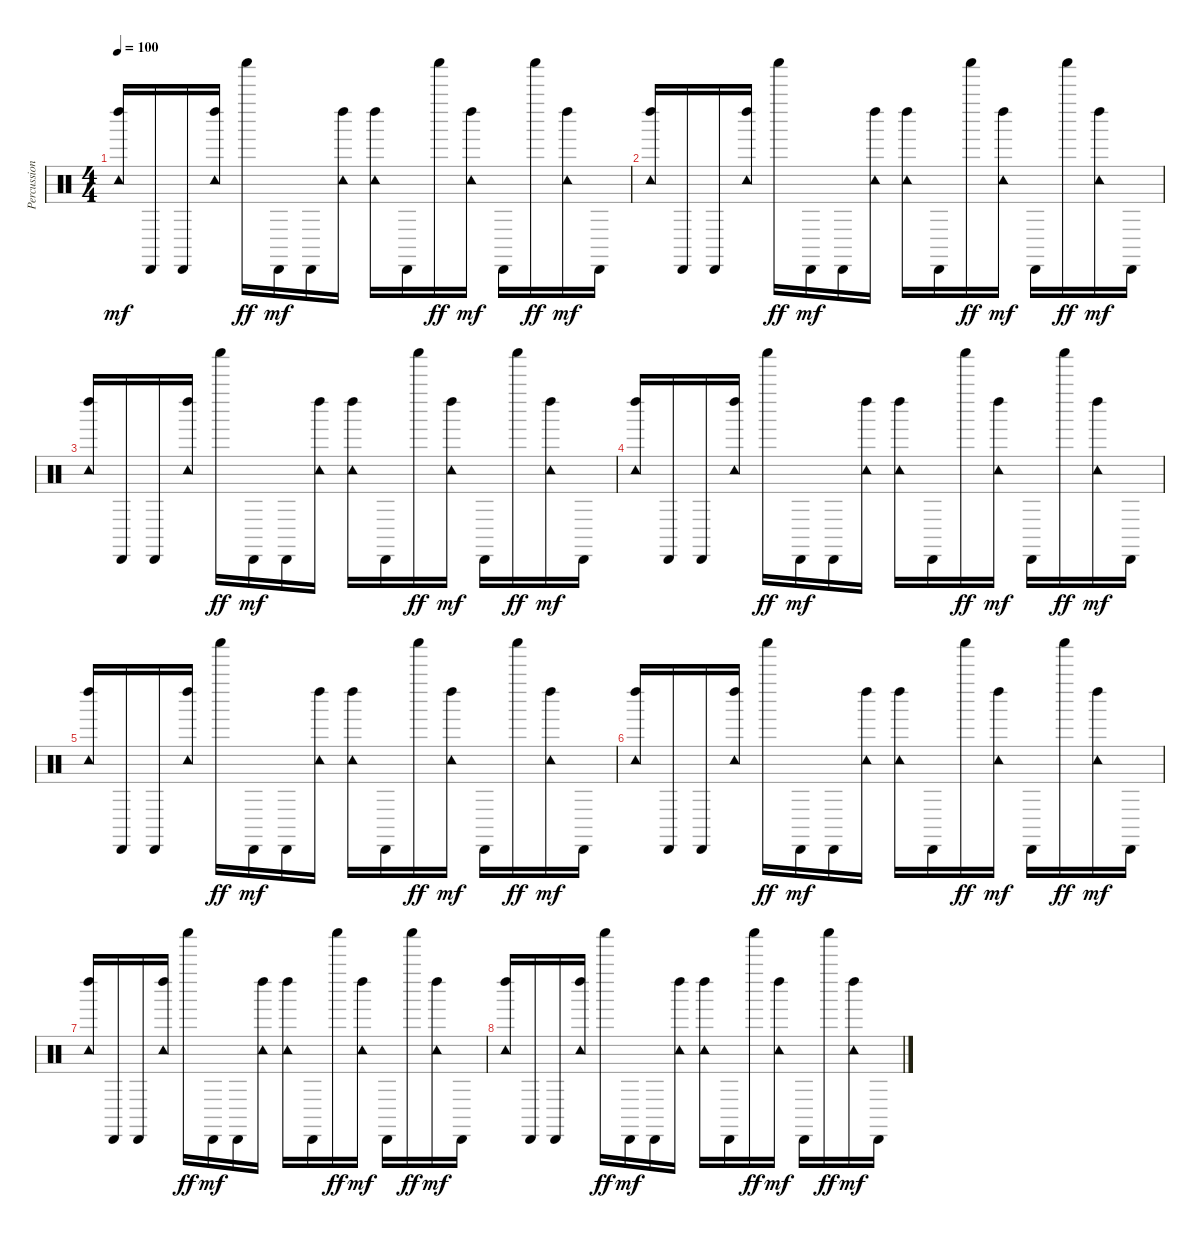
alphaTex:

\track ("Percussion" "Percussion") {instrument percussion}
\staff {score}
\articulation defaults
\ts (4 4)
\tempo 100
\clef neutral
\ks c
("Left Maraca (hit)" "Tambourine (hit)").16{dy mf} "Cabasa (hit)".16 "Cabasa (hit)".16 ("Left Maraca (hit)" "Tambourine (hit)").16 "Shaker (hit)".16{dy ff} "Cabasa (hit)".16{dy mf} "Cabasa (hit)".16 ("Left Maraca (hit)" "Tambourine (hit)").16 ("Left Maraca (hit)" "Tambourine (hit)").16 "Cabasa (hit)".16 "Shaker (hit)".16{dy ff} ("Left Maraca (hit)" "Tambourine (hit)").16{dy mf} "Cabasa (hit)".16 "Shaker (hit)".16{dy ff} ("Left Maraca (hit)" "Tambourine (hit)").16{dy mf} "Cabasa (hit)".16 |
("Left Maraca (hit)" "Tambourine (hit)").16 "Cabasa (hit)".16 "Cabasa (hit)".16 ("Left Maraca (hit)" "Tambourine (hit)").16 "Shaker (hit)".16{dy ff} "Cabasa (hit)".16{dy mf} "Cabasa (hit)".16 ("Left Maraca (hit)" "Tambourine (hit)").16 ("Left Maraca (hit)" "Tambourine (hit)").16 "Cabasa (hit)".16 "Shaker (hit)".16{dy ff} ("Left Maraca (hit)" "Tambourine (hit)").16{dy mf} "Cabasa (hit)".16 "Shaker (hit)".16{dy ff} ("Left Maraca (hit)" "Tambourine (hit)").16{dy mf} "Cabasa (hit)".16 |
("Left Maraca (hit)" "Tambourine (hit)").16 "Cabasa (hit)".16 "Cabasa (hit)".16 ("Left Maraca (hit)" "Tambourine (hit)").16 "Shaker (hit)".16{dy ff} "Cabasa (hit)".16{dy mf} "Cabasa (hit)".16 ("Left Maraca (hit)" "Tambourine (hit)").16 ("Left Maraca (hit)" "Tambourine (hit)").16 "Cabasa (hit)".16 "Shaker (hit)".16{dy ff} ("Left Maraca (hit)" "Tambourine (hit)").16{dy mf} "Cabasa (hit)".16 "Shaker (hit)".16{dy ff} ("Left Maraca (hit)" "Tambourine (hit)").16{dy mf} "Cabasa (hit)".16 |
("Left Maraca (hit)" "Tambourine (hit)").16 "Cabasa (hit)".16 "Cabasa (hit)".16 ("Left Maraca (hit)" "Tambourine (hit)").16 "Shaker (hit)".16{dy ff} "Cabasa (hit)".16{dy mf} "Cabasa (hit)".16 ("Left Maraca (hit)" "Tambourine (hit)").16 ("Left Maraca (hit)" "Tambourine (hit)").16 "Cabasa (hit)".16 "Shaker (hit)".16{dy ff} ("Left Maraca (hit)" "Tambourine (hit)").16{dy mf} "Cabasa (hit)".16 "Shaker (hit)".16{dy ff} ("Left Maraca (hit)" "Tambourine (hit)").16{dy mf} "Cabasa (hit)".16 |
("Left Maraca (hit)" "Tambourine (hit)").16 "Cabasa (hit)".16 "Cabasa (hit)".16 ("Left Maraca (hit)" "Tambourine (hit)").16 "Shaker (hit)".16{dy ff} "Cabasa (hit)".16{dy mf} "Cabasa (hit)".16 ("Left Maraca (hit)" "Tambourine (hit)").16 ("Left Maraca (hit)" "Tambourine (hit)").16 "Cabasa (hit)".16 "Shaker (hit)".16{dy ff} ("Left Maraca (hit)" "Tambourine (hit)").16{dy mf} "Cabasa (hit)".16 "Shaker (hit)".16{dy ff} ("Left Maraca (hit)" "Tambourine (hit)").16{dy mf} "Cabasa (hit)".16 |
("Left Maraca (hit)" "Tambourine (hit)").16 "Cabasa (hit)".16 "Cabasa (hit)".16 ("Left Maraca (hit)" "Tambourine (hit)").16 "Shaker (hit)".16{dy ff} "Cabasa (hit)".16{dy mf} "Cabasa (hit)".16 ("Left Maraca (hit)" "Tambourine (hit)").16 ("Left Maraca (hit)" "Tambourine (hit)").16 "Cabasa (hit)".16 "Shaker (hit)".16{dy ff} ("Left Maraca (hit)" "Tambourine (hit)").16{dy mf} "Cabasa (hit)".16 "Shaker (hit)".16{dy ff} ("Left Maraca (hit)" "Tambourine (hit)").16{dy mf} "Cabasa (hit)".16 |
("Left Maraca (hit)" "Tambourine (hit)").16 "Cabasa (hit)".16 "Cabasa (hit)".16 ("Left Maraca (hit)" "Tambourine (hit)").16 "Shaker (hit)".16{dy ff} "Cabasa (hit)".16{dy mf} "Cabasa (hit)".16 ("Left Maraca (hit)" "Tambourine (hit)").16 ("Left Maraca (hit)" "Tambourine (hit)").16 "Cabasa (hit)".16 "Shaker (hit)".16{dy ff} ("Left Maraca (hit)" "Tambourine (hit)").16{dy mf} "Cabasa (hit)".16 "Shaker (hit)".16{dy ff} ("Left Maraca (hit)" "Tambourine (hit)").16{dy mf} "Cabasa (hit)".16 |
("Left Maraca (hit)" "Tambourine (hit)").16 "Cabasa (hit)".16 "Cabasa (hit)".16 ("Left Maraca (hit)" "Tambourine (hit)").16 "Shaker (hit)".16{dy ff} "Cabasa (hit)".16{dy mf} "Cabasa (hit)".16 ("Left Maraca (hit)" "Tambourine (hit)").16 ("Left Maraca (hit)" "Tambourine (hit)").16 "Cabasa (hit)".16 "Shaker (hit)".16{dy ff} ("Left Maraca (hit)" "Tambourine (hit)").16{dy mf} "Cabasa (hit)".16 "Shaker (hit)".16{dy ff} ("Left Maraca (hit)" "Tambourine (hit)").16{dy mf} "Cabasa (hit)".16
